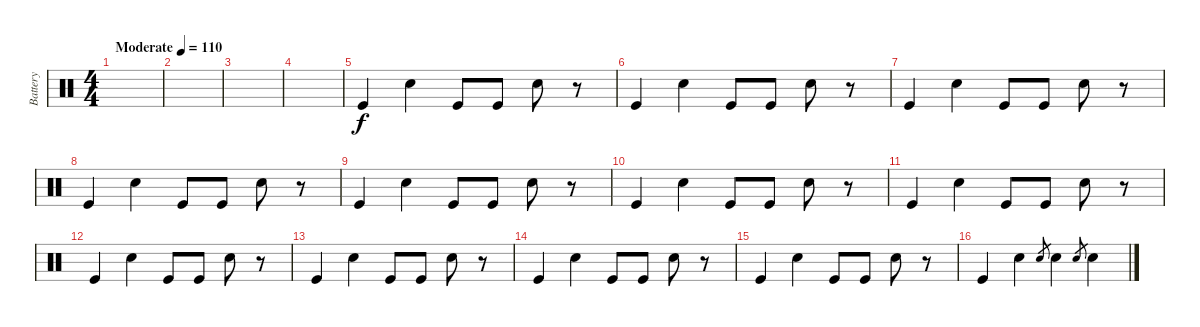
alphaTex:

\track ("Battery" "Battery") {instrument percussion}
\staff {score}
\articulation defaults
\ts (4 4)
\tempo (110 "Moderate")
\clef neutral
\ks c
|
|
|
|
"Kick (hit)".4 "Snare (hit) 2".4 "Kick (hit)".8 "Kick (hit)".8 "Snare (hit) 2".8 r.8 |
"Kick (hit)".4 "Snare (hit) 2".4 "Kick (hit)".8 "Kick (hit)".8 "Snare (hit) 2".8 r.8 |
"Kick (hit)".4 "Snare (hit) 2".4 "Kick (hit)".8 "Kick (hit)".8 "Snare (hit) 2".8 r.8 |
"Kick (hit)".4 "Snare (hit) 2".4 "Kick (hit)".8 "Kick (hit)".8 "Snare (hit) 2".8 r.8 |
"Kick (hit)".4 "Snare (hit) 2".4 "Kick (hit)".8 "Kick (hit)".8 "Snare (hit) 2".8 r.8 |
"Kick (hit)".4 "Snare (hit) 2".4 "Kick (hit)".8 "Kick (hit)".8 "Snare (hit) 2".8 r.8 |
"Kick (hit)".4 "Snare (hit) 2".4 "Kick (hit)".8 "Kick (hit)".8 "Snare (hit) 2".8 r.8 |
"Kick (hit)".4 "Snare (hit) 2".4 "Kick (hit)".8 "Kick (hit)".8 "Snare (hit) 2".8 r.8 |
"Kick (hit)".4 "Snare (hit) 2".4 "Kick (hit)".8 "Kick (hit)".8 "Snare (hit) 2".8 r.8 |
"Kick (hit)".4 "Snare (hit) 2".4 "Kick (hit)".8 "Kick (hit)".8 "Snare (hit) 2".8 r.8 |
"Kick (hit)".4 "Snare (hit) 2".4 "Kick (hit)".8 "Kick (hit)".8 "Snare (hit) 2".8 r.8 |
"Kick (hit)".4 "Snare (hit) 2".4 "Snare (hit) 2".8{gr} "Snare (hit) 2".4 "Snare (hit) 2".8{gr} "Snare (hit) 2".4
